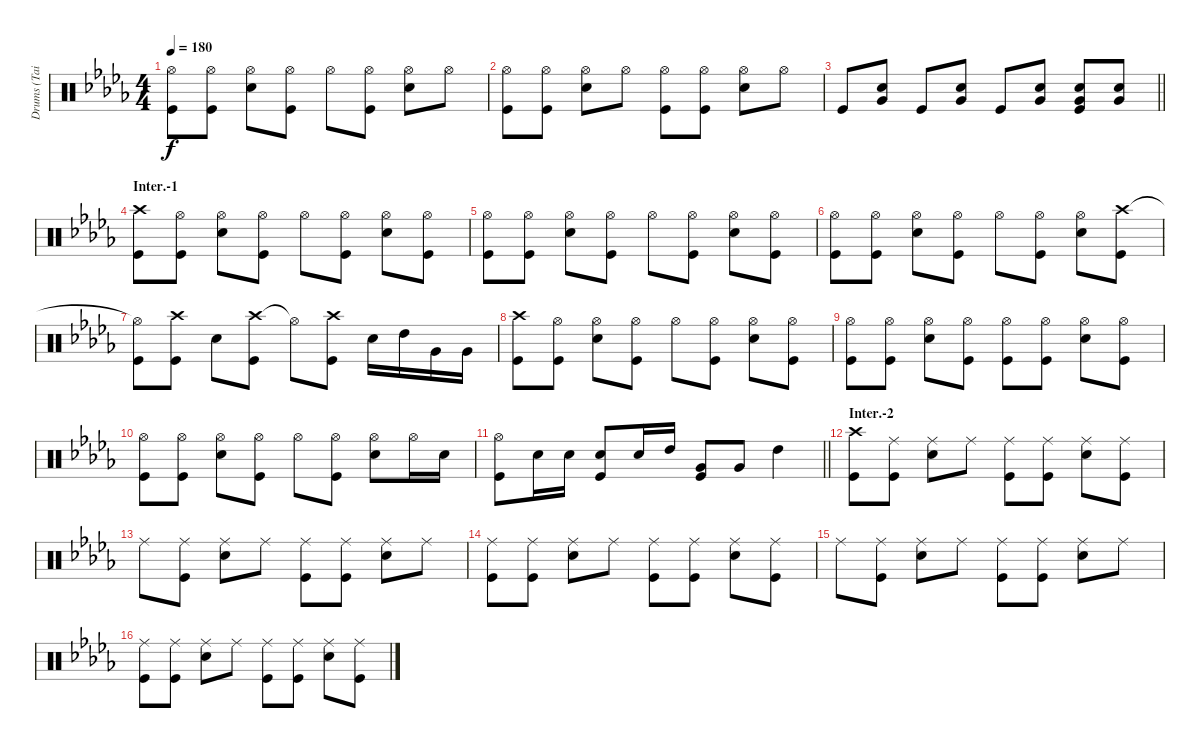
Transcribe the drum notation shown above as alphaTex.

\track ("Drums (Tainaka Ritsu)" "Drums (Tai") {instrument percussion}
\staff {score}
\articulation defaults
\ts (4 4)
\tempo 180
\clef neutral
\ks db
("Hi-Hat (open)" "Kick (hit)").8{dy f} ("Hi-Hat (open)" "Kick (hit)").8 ("Hi-Hat (open)" "Snare (hit) 2").8 ("Hi-Hat (open)" "Kick (hit)").8 "Hi-Hat (open)".8 ("Hi-Hat (open)" "Kick (hit)").8 ("Hi-Hat (open)" "Snare (hit) 2").8 "Hi-Hat (open)".8 |
("Hi-Hat (open)" "Kick (hit)").8 ("Hi-Hat (open)" "Kick (hit)").8 ("Hi-Hat (open)" "Snare (hit) 2").8 "Hi-Hat (open)".8 ("Hi-Hat (open)" "Kick (hit)").8 ("Hi-Hat (open)" "Kick (hit)").8 ("Hi-Hat (open)" "Snare (hit) 2").8 "Hi-Hat (open)".8 |
\barLineRight lightlight "Kick (hit)".8
("Snare (hit) 2" "Very Low Tom (hit)").8 "Kick (hit)".8 ("Snare (hit) 2" "Very Low Tom (hit)").8 "Kick (hit)".8 ("Snare (hit) 2" "Very Low Tom (hit)").8 ("Snare (hit) 2" "Very Low Tom (hit)" "Kick (hit)").8 ("Snare (hit) 2" "Very Low Tom (hit)").8 |
\section ("" "Inter.-1")
("Crash high (hit)" "Kick (hit)").8 ("Hi-Hat (open)" "Kick (hit)").8 ("Hi-Hat (open)" "Snare (hit) 2").8 ("Hi-Hat (open)" "Kick (hit)").8 "Hi-Hat (open)".8 ("Hi-Hat (open)" "Kick (hit)").8 ("Hi-Hat (open)" "Snare (hit) 2").8 ("Hi-Hat (open)" "Kick (hit)").8 |
("Hi-Hat (open)" "Kick (hit)").8 ("Hi-Hat (open)" "Kick (hit)").8 ("Hi-Hat (open)" "Snare (hit) 2").8 ("Hi-Hat (open)" "Kick (hit)").8 "Hi-Hat (open)".8 ("Hi-Hat (open)" "Kick (hit)").8 ("Hi-Hat (open)" "Snare (hit) 2").8 ("Hi-Hat (open)" "Kick (hit)").8 |
("Hi-Hat (open)" "Kick (hit)").8 ("Hi-Hat (open)" "Kick (hit)").8 ("Hi-Hat (open)" "Snare (hit) 2").8 ("Hi-Hat (open)" "Kick (hit)").8 "Hi-Hat (open)".8 ("Hi-Hat (open)" "Kick (hit)").8 ("Hi-Hat (open)" "Snare (hit) 2").8 ("Crash high (hit)" "Kick (hit)").8 |
("Hi-Hat (open)"{t} "Kick (hit)").8 ("Crash high (hit)" "Kick (hit)").8 "Snare (hit) 2".8 ("Crash high (hit)" "Kick (hit)").8 "Hi-Hat (open)"{t}.8 ("Crash high (hit)" "Kick (hit)").8 "Snare (hit) 2".16 "High Tom (hit)".16 "Very Low Tom (hit)".16 "Very Low Tom (hit)".16 |
("Crash high (hit)" "Kick (hit)").8 ("Hi-Hat (open)" "Kick (hit)").8 ("Hi-Hat (open)" "Snare (hit) 2").8 ("Hi-Hat (open)" "Kick (hit)").8 "Hi-Hat (open)".8 ("Hi-Hat (open)" "Kick (hit)").8 ("Hi-Hat (open)" "Snare (hit) 2").8 ("Hi-Hat (open)" "Kick (hit)").8 |
("Hi-Hat (open)" "Kick (hit)").8 ("Hi-Hat (open)" "Kick (hit)").8 ("Hi-Hat (open)" "Snare (hit) 2").8 ("Hi-Hat (open)" "Kick (hit)").8 ("Hi-Hat (open)" "Kick (hit)").8 ("Hi-Hat (open)" "Kick (hit)").8 ("Hi-Hat (open)" "Snare (hit) 2").8 ("Hi-Hat (open)" "Kick (hit)").8 |
("Hi-Hat (open)" "Kick (hit)").8 ("Hi-Hat (open)" "Kick (hit)").8 ("Hi-Hat (open)" "Snare (hit) 2").8 ("Hi-Hat (open)" "Kick (hit)").8 "Hi-Hat (open)".8 ("Hi-Hat (open)" "Kick (hit)").8 ("Hi-Hat (open)" "Snare (hit) 2").8 "Hi-Hat (open)".16 "Snare (hit) 2".16 |
\barLineRight lightlight
("Hi-Hat (open)" "Kick (hit)").8 "Snare (hit) 2".16 "Snare (hit) 2".16 ("Snare (hit) 2" "Kick (hit)").8 "Snare (hit) 2".16 "High Tom (hit)".16 ("Very Low Tom (hit)" "Kick (hit)").8 "Very Low Tom (hit)".8 "High Tom (hit)".4 |
\section ("" "Inter.-2")
("Crash high (hit)" "Kick (hit)").8 ("Ride (middle)" "Kick (hit)").8 ("Ride (middle)" "Snare (hit) 2").8 "Ride (middle)".8 ("Ride (middle)" "Kick (hit)").8 ("Ride (middle)" "Kick (hit)").8 ("Ride (middle)" "Snare (hit) 2").8 ("Ride (middle)" "Kick (hit)").8 |
"Ride (middle)".8 ("Ride (middle)" "Kick (hit)").8 ("Ride (middle)" "Snare (hit) 2").8 "Ride (middle)".8 ("Ride (middle)" "Kick (hit)").8 ("Ride (middle)" "Kick (hit)").8 ("Ride (middle)" "Snare (hit) 2").8 "Ride (middle)".8 |
("Ride (middle)" "Kick (hit)").8 ("Ride (middle)" "Kick (hit)").8 ("Ride (middle)" "Snare (hit) 2").8 "Ride (middle)".8 ("Ride (middle)" "Kick (hit)").8 ("Ride (middle)" "Kick (hit)").8 ("Ride (middle)" "Snare (hit) 2").8 ("Ride (middle)" "Kick (hit)").8 |
"Ride (middle)".8 ("Ride (middle)" "Kick (hit)").8 ("Ride (middle)" "Snare (hit) 2").8 "Ride (middle)".8 ("Ride (middle)" "Kick (hit)").8 ("Ride (middle)" "Kick (hit)").8 ("Ride (middle)" "Snare (hit) 2").8 "Ride (middle)".8 |
("Ride (middle)" "Kick (hit)").8 ("Ride (middle)" "Kick (hit)").8 ("Ride (middle)" "Snare (hit) 2").8 "Ride (middle)".8 ("Ride (middle)" "Kick (hit)").8 ("Ride (middle)" "Kick (hit)").8 ("Ride (middle)" "Snare (hit) 2").8 ("Ride (middle)" "Kick (hit)").8
